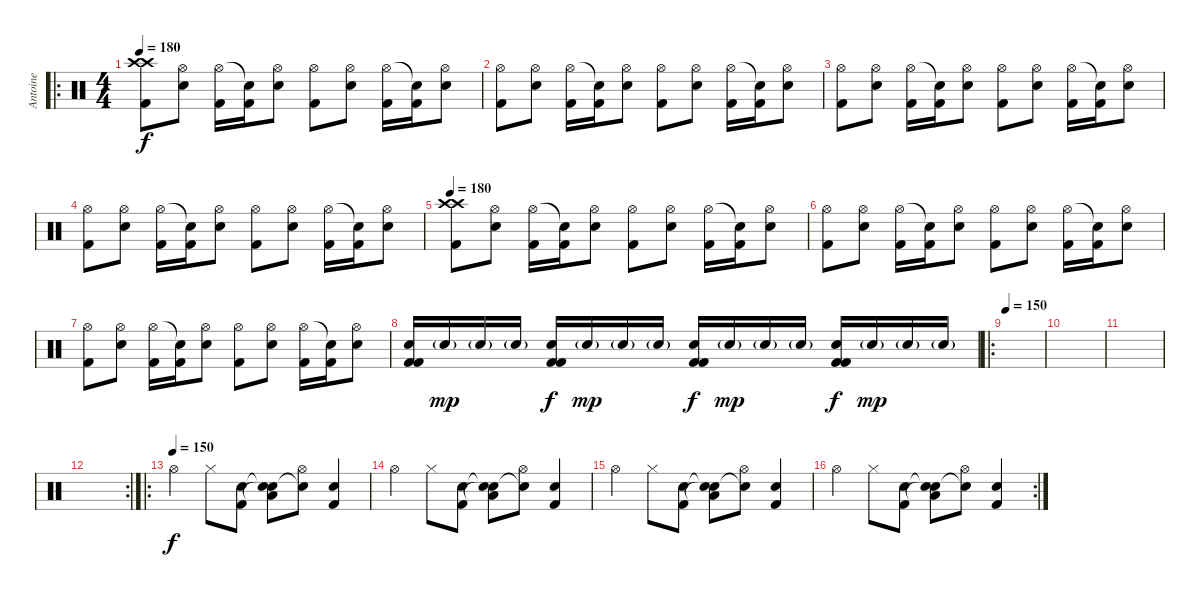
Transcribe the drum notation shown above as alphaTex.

\track ("Antoine" "Antoine") {instrument percussion}
\staff {score}
\articulation defaults
\ro
\ts (4 4)
\tempo 180
\clef neutral
\ks c
("Crash high (hit)" "Crash high (hit)" "Kick (hit) 2").8{dy f} ("Hi-Hat (open)" "Snare (hit) 2").8 ("Hi-Hat (open)" "Kick (hit) 2").16 ("Snare (hit)"{t} "Kick (hit) 2").16 ("Hi-Hat (open)" "Snare (hit) 2").8 ("Hi-Hat (open)" "Kick (hit) 2").8 ("Hi-Hat (open)" "Snare (hit) 2").8 ("Hi-Hat (open)" "Kick (hit) 2").16 ("Snare (hit)"{t} "Kick (hit) 2").16 ("Hi-Hat (open)" "Snare (hit) 2").8 |
("Hi-Hat (open)" "Kick (hit) 2").8 ("Hi-Hat (open)" "Snare (hit) 2").8 ("Hi-Hat (open)" "Kick (hit) 2").16 ("Snare (hit)"{t} "Kick (hit) 2").16 ("Hi-Hat (open)" "Snare (hit) 2").8 ("Hi-Hat (open)" "Kick (hit) 2").8 ("Hi-Hat (open)" "Snare (hit) 2").8 ("Hi-Hat (open)" "Kick (hit) 2").16 ("Snare (hit)"{t} "Kick (hit) 2").16 ("Hi-Hat (open)" "Snare (hit) 2").8 |
("Hi-Hat (open)" "Kick (hit) 2").8 ("Hi-Hat (open)" "Snare (hit) 2").8 ("Hi-Hat (open)" "Kick (hit) 2").16 ("Snare (hit)"{t} "Kick (hit) 2").16 ("Hi-Hat (open)" "Snare (hit) 2").8 ("Hi-Hat (open)" "Kick (hit) 2").8 ("Hi-Hat (open)" "Snare (hit) 2").8 ("Hi-Hat (open)" "Kick (hit) 2").16 ("Snare (hit)"{t} "Kick (hit) 2").16 ("Hi-Hat (open)" "Snare (hit) 2").8 |
("Hi-Hat (open)" "Kick (hit) 2").8 ("Hi-Hat (open)" "Snare (hit) 2").8 ("Hi-Hat (open)" "Kick (hit) 2").16 ("Snare (hit)"{t} "Kick (hit) 2").16 ("Hi-Hat (open)" "Snare (hit) 2").8 ("Hi-Hat (open)" "Kick (hit) 2").8 ("Hi-Hat (open)" "Snare (hit) 2").8 ("Hi-Hat (open)" "Kick (hit) 2").16 ("Snare (hit)"{t} "Kick (hit) 2").16 ("Hi-Hat (open)" "Snare (hit) 2").8 |
\tempo 180
("Crash high (hit)" "Crash high (hit)" "Kick (hit) 2").8 ("Hi-Hat (open)" "Snare (hit) 2").8 ("Hi-Hat (open)" "Kick (hit) 2").16 ("Snare (hit)"{t} "Kick (hit) 2").16 ("Hi-Hat (open)" "Snare (hit) 2").8 ("Hi-Hat (open)" "Kick (hit) 2").8 ("Hi-Hat (open)" "Snare (hit) 2").8 ("Hi-Hat (open)" "Kick (hit) 2").16 ("Snare (hit)"{t} "Kick (hit) 2").16 ("Hi-Hat (open)" "Snare (hit) 2").8 |
("Hi-Hat (open)" "Kick (hit) 2").8 ("Hi-Hat (open)" "Snare (hit) 2").8 ("Hi-Hat (open)" "Kick (hit) 2").16 ("Snare (hit)"{t} "Kick (hit) 2").16 ("Hi-Hat (open)" "Snare (hit) 2").8 ("Hi-Hat (open)" "Kick (hit) 2").8 ("Hi-Hat (open)" "Snare (hit) 2").8 ("Hi-Hat (open)" "Kick (hit) 2").16 ("Snare (hit)"{t} "Kick (hit) 2").16 ("Hi-Hat (open)" "Snare (hit) 2").8 |
("Hi-Hat (open)" "Kick (hit) 2").8 ("Hi-Hat (open)" "Snare (hit) 2").8 ("Hi-Hat (open)" "Kick (hit) 2").16 ("Snare (hit)"{t} "Kick (hit) 2").16 ("Hi-Hat (open)" "Snare (hit) 2").8 ("Hi-Hat (open)" "Kick (hit) 2").8 ("Hi-Hat (open)" "Snare (hit) 2").8 ("Hi-Hat (open)" "Kick (hit) 2").16 ("Snare (hit)"{t} "Kick (hit) 2").16 ("Hi-Hat (open)" "Snare (hit) 2").8 |
("Electric Snare (hit)" "Kick (hit) 2" "Kick (hit) 2").16 "Electric Snare (hit)"{g}.16{dy mp} "Electric Snare (hit)"{g}.16 "Electric Snare (hit)"{g}.16 ("Electric Snare (hit)" "Kick (hit) 2" "Kick (hit) 2").16{dy f} "Electric Snare (hit)"{g}.16{dy mp} "Electric Snare (hit)"{g}.16 "Electric Snare (hit)"{g}.16 ("Electric Snare (hit)" "Kick (hit) 2" "Kick (hit) 2").16{dy f} "Electric Snare (hit)"{g}.16{dy mp} "Electric Snare (hit)"{g}.16 "Electric Snare (hit)"{g}.16 ("Electric Snare (hit)" "Kick (hit) 2" "Kick (hit) 2").16{dy f} "Electric Snare (hit)"{g}.16{dy mp} "Electric Snare (hit)"{g}.16 "Electric Snare (hit)"{g}.16 |
\ro
\tempo 150
|
|
|
\rc 2
|
\ro
\tempo (150)
"Hi-Hat (open)".4{dy f} "Hi-Hat (closed)".8 ("Kick (hit) 2" "Electric Snare (hit)").8 ("Snare (hit)"{t} "Snare (hit)"{t} "Low Tom (hit)").8 ("Snare (hit)"{t} "Hi-Hat (open)").8 ("Kick (hit) 2" "Electric Snare (hit)").4 |
"Hi-Hat (open)".4 "Hi-Hat (closed)".8 ("Kick (hit) 2" "Electric Snare (hit)").8 ("Snare (hit)"{t} "Snare (hit)"{t} "Low Tom (hit)").8 ("Snare (hit)"{t} "Hi-Hat (open)").8 ("Kick (hit) 2" "Electric Snare (hit)").4 |
"Hi-Hat (open)".4 "Hi-Hat (closed)".8 ("Kick (hit) 2" "Electric Snare (hit)").8 ("Snare (hit)"{t} "Snare (hit)"{t} "Low Tom (hit)").8 ("Snare (hit)"{t} "Hi-Hat (open)").8 ("Kick (hit) 2" "Electric Snare (hit)").4 |
\rc 2 "Hi-Hat (open)".4 "Hi-Hat (closed)".8
("Kick (hit) 2" "Electric Snare (hit)").8 ("Snare (hit)"{t} "Snare (hit)"{t} "Low Tom (hit)").8 ("Snare (hit)"{t} "Hi-Hat (open)").8 ("Kick (hit) 2" "Electric Snare (hit)").4
